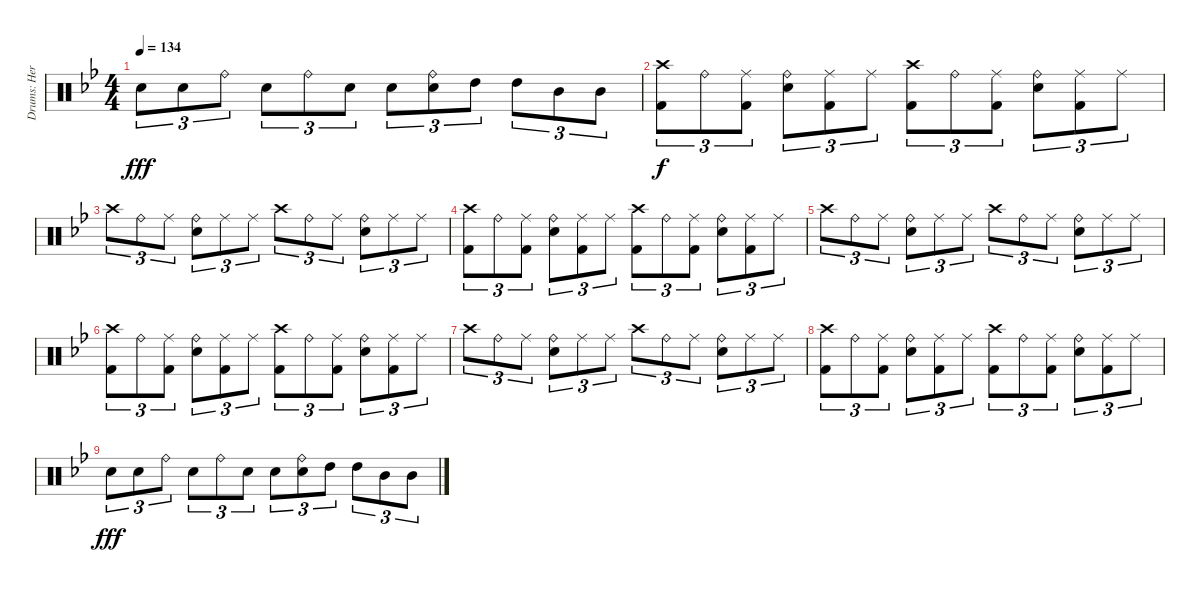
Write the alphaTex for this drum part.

\track ("Drums: Herman" "Drums: Her") {instrument percussion}
\staff {score}
\articulation defaults
\ts (4 4)
\tempo 134
\clef neutral
\ks bb "Snare (hit) 2".8{tu (3 2) dy fff} "Snare (hit) 2".8{tu (3 2)} "Ride (bell)".8{tu (3 2)} "Snare (hit) 2".8{tu (3 2)} "Ride (bell)".8{tu (3 2)} "Snare (hit) 2".8{tu (3 2)} "Snare (hit) 2".8{tu (3 2)}
("Ride (bell)" "Snare (hit) 2").8{tu (3 2)} "High Tom (hit)".8{tu (3 2)} "High Tom (hit)".8{tu (3 2)} "Mid Tom (hit)".8{tu (3 2)} "Mid Tom (hit)".8{tu (3 2)} |
("Crash high (hit)" "Kick (hit) 2").8{tu (3 2) dy f} "Ride (bell)".8{tu (3 2)} ("Ride (middle)" "Kick (hit) 2").8{tu (3 2)} ("Ride (bell)" "Snare (hit) 2").8{tu (3 2)} ("Ride (middle)" "Kick (hit) 2").8{tu (3 2)} "Ride (middle)".8{tu (3 2)} ("Crash high (hit)" "Kick (hit) 2").8{tu (3 2)} "Ride (bell)".8{tu (3 2)} ("Ride (middle)" "Kick (hit) 2").8{tu (3 2)} ("Ride (bell)" "Snare (hit) 2").8{tu (3 2)} ("Ride (middle)" "Kick (hit) 2").8{tu (3 2)} "Ride (middle)".8{tu (3 2)} |
"Crash high (hit)".8{tu (3 2)} "Ride (bell)".8{tu (3 2)} "Ride (middle)".8{tu (3 2)} ("Ride (bell)" "Snare (hit) 2").8{tu (3 2)} "Ride (middle)".8{tu (3 2)} "Ride (middle)".8{tu (3 2)} "Crash high (hit)".8{tu (3 2)} "Ride (bell)".8{tu (3 2)} "Ride (middle)".8{tu (3 2)} ("Ride (bell)" "Snare (hit) 2").8{tu (3 2)} "Ride (middle)".8{tu (3 2)} "Ride (middle)".8{tu (3 2)} |
("Crash high (hit)" "Kick (hit) 2").8{tu (3 2)} "Ride (bell)".8{tu (3 2)} ("Ride (middle)" "Kick (hit) 2").8{tu (3 2)} ("Ride (bell)" "Snare (hit) 2").8{tu (3 2)} ("Ride (middle)" "Kick (hit) 2").8{tu (3 2)} "Ride (middle)".8{tu (3 2)} ("Crash high (hit)" "Kick (hit) 2").8{tu (3 2)} "Ride (bell)".8{tu (3 2)} ("Ride (middle)" "Kick (hit) 2").8{tu (3 2)} ("Ride (bell)" "Snare (hit) 2").8{tu (3 2)} ("Ride (middle)" "Kick (hit) 2").8{tu (3 2)} "Ride (middle)".8{tu (3 2)} |
"Crash high (hit)".8{tu (3 2)} "Ride (bell)".8{tu (3 2)} "Ride (middle)".8{tu (3 2)} ("Ride (bell)" "Snare (hit) 2").8{tu (3 2)} "Ride (middle)".8{tu (3 2)} "Ride (middle)".8{tu (3 2)} "Crash high (hit)".8{tu (3 2)} "Ride (bell)".8{tu (3 2)} "Ride (middle)".8{tu (3 2)} ("Ride (bell)" "Snare (hit) 2").8{tu (3 2)} "Ride (middle)".8{tu (3 2)} "Ride (middle)".8{tu (3 2)} |
("Crash high (hit)" "Kick (hit) 2").8{tu (3 2)} "Ride (bell)".8{tu (3 2)} ("Ride (middle)" "Kick (hit) 2").8{tu (3 2)} ("Ride (bell)" "Snare (hit) 2").8{tu (3 2)} ("Ride (middle)" "Kick (hit) 2").8{tu (3 2)} "Ride (middle)".8{tu (3 2)} ("Crash high (hit)" "Kick (hit) 2").8{tu (3 2)} "Ride (bell)".8{tu (3 2)} ("Ride (middle)" "Kick (hit) 2").8{tu (3 2)} ("Ride (bell)" "Snare (hit) 2").8{tu (3 2)} ("Ride (middle)" "Kick (hit) 2").8{tu (3 2)} "Ride (middle)".8{tu (3 2)} |
"Crash high (hit)".8{tu (3 2)} "Ride (bell)".8{tu (3 2)} "Ride (middle)".8{tu (3 2)} ("Ride (bell)" "Snare (hit) 2").8{tu (3 2)} "Ride (middle)".8{tu (3 2)} "Ride (middle)".8{tu (3 2)} "Crash high (hit)".8{tu (3 2)} "Ride (bell)".8{tu (3 2)} "Ride (middle)".8{tu (3 2)} ("Ride (bell)" "Snare (hit) 2").8{tu (3 2)} "Ride (middle)".8{tu (3 2)} "Ride (middle)".8{tu (3 2)} |
("Crash high (hit)" "Kick (hit) 2").8{tu (3 2)} "Ride (bell)".8{tu (3 2)} ("Ride (middle)" "Kick (hit) 2").8{tu (3 2)} ("Ride (bell)" "Snare (hit) 2").8{tu (3 2)} ("Ride (middle)" "Kick (hit) 2").8{tu (3 2)} "Ride (middle)".8{tu (3 2)} ("Crash high (hit)" "Kick (hit) 2").8{tu (3 2)} "Ride (bell)".8{tu (3 2)} ("Ride (middle)" "Kick (hit) 2").8{tu (3 2)} ("Ride (bell)" "Snare (hit) 2").8{tu (3 2)} ("Ride (middle)" "Kick (hit) 2").8{tu (3 2)} "Ride (middle)".8{tu (3 2)} |
"Snare (hit) 2".8{tu (3 2) dy fff} "Snare (hit) 2".8{tu (3 2)} "Ride (bell)".8{tu (3 2)} "Snare (hit) 2".8{tu (3 2)} "Ride (bell)".8{tu (3 2)} "Snare (hit) 2".8{tu (3 2)} "Snare (hit) 2".8{tu (3 2)} ("Ride (bell)" "Snare (hit) 2").8{tu (3 2)} "High Tom (hit)".8{tu (3 2)} "High Tom (hit)".8{tu (3 2)} "Mid Tom (hit)".8{tu (3 2)} "Mid Tom (hit)".8{tu (3 2)}
